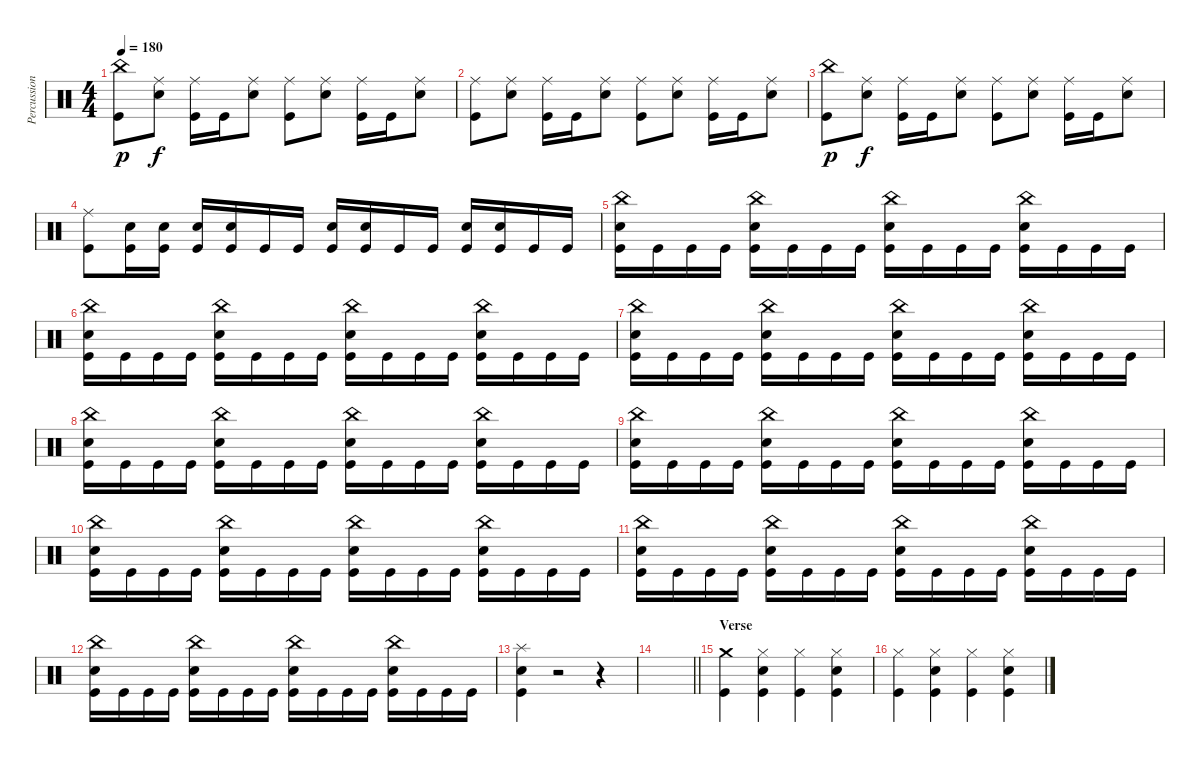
\track ("Percussion" "Percussion") {instrument percussion}
\staff {score}
\articulation defaults
\ts (4 4)
\tempo 180
\clef neutral
\ks c
("China (hit)" "Kick (hit)").8{dy p} ("Ride (middle)" "Snare (hit) 2").8{dy f} ("Ride (middle)" "Kick (hit)").16 "Kick (hit)".16 ("Ride (middle)" "Snare (hit) 2").8 ("Ride (middle)" "Kick (hit)").8 ("Ride (middle)" "Snare (hit) 2").8 ("Ride (middle)" "Kick (hit)").16 "Kick (hit)".16 ("Ride (middle)" "Snare (hit) 2").8 |
("Ride (middle)" "Kick (hit)").8 ("Ride (middle)" "Snare (hit) 2").8 ("Ride (middle)" "Kick (hit)").16 "Kick (hit)".16 ("Ride (middle)" "Snare (hit) 2").8 ("Ride (middle)" "Kick (hit)").8 ("Ride (middle)" "Snare (hit) 2").8 ("Ride (middle)" "Kick (hit)").16 "Kick (hit)".16 ("Ride (middle)" "Snare (hit) 2").8 |
("China (hit)" "Kick (hit)").8{dy p} ("Ride (middle)" "Snare (hit) 2").8{dy f} ("Ride (middle)" "Kick (hit)").16 "Kick (hit)".16 ("Ride (middle)" "Snare (hit) 2").8 ("Ride (middle)" "Kick (hit)").8 ("Ride (middle)" "Snare (hit) 2").8 ("Ride (middle)" "Kick (hit)").16 "Kick (hit)".16 ("Ride (middle)" "Snare (hit) 2").8 |
("Ride (middle)" "Kick (hit)").8 ("Snare (hit) 2" "Kick (hit)").16 ("Snare (hit) 2" "Kick (hit)").16 ("Snare (hit) 2" "Kick (hit)").16 ("Snare (hit) 2" "Kick (hit)").16 "Kick (hit)".16 "Kick (hit)".16 ("Snare (hit) 2" "Kick (hit)").16 ("Snare (hit) 2" "Kick (hit)").16 "Kick (hit)".16 "Kick (hit)".16 ("Snare (hit) 2" "Kick (hit)").16 ("Snare (hit) 2" "Kick (hit)").16 "Kick (hit)".16 "Kick (hit)".16 |
("China (hit)" "Snare (hit) 2" "Kick (hit)").16 "Kick (hit)".16 "Kick (hit)".16 "Kick (hit)".16 ("China (hit)" "Snare (hit) 2" "Kick (hit)").16 "Kick (hit)".16 "Kick (hit)".16 "Kick (hit)".16 ("China (hit)" "Snare (hit) 2" "Kick (hit)").16 "Kick (hit)".16 "Kick (hit)".16 "Kick (hit)".16 ("China (hit)" "Snare (hit) 2" "Kick (hit)").16 "Kick (hit)".16 "Kick (hit)".16 "Kick (hit)".16 |
("China (hit)" "Snare (hit) 2" "Kick (hit)").16 "Kick (hit)".16 "Kick (hit)".16 "Kick (hit)".16 ("China (hit)" "Snare (hit) 2" "Kick (hit)").16 "Kick (hit)".16 "Kick (hit)".16 "Kick (hit)".16 ("China (hit)" "Snare (hit) 2" "Kick (hit)").16 "Kick (hit)".16 "Kick (hit)".16 "Kick (hit)".16 ("China (hit)" "Snare (hit) 2" "Kick (hit)").16 "Kick (hit)".16 "Kick (hit)".16 "Kick (hit)".16 |
("China (hit)" "Snare (hit) 2" "Kick (hit)").16 "Kick (hit)".16 "Kick (hit)".16 "Kick (hit)".16 ("China (hit)" "Snare (hit) 2" "Kick (hit)").16 "Kick (hit)".16 "Kick (hit)".16 "Kick (hit)".16 ("China (hit)" "Snare (hit) 2" "Kick (hit)").16 "Kick (hit)".16 "Kick (hit)".16 "Kick (hit)".16 ("China (hit)" "Snare (hit) 2" "Kick (hit)").16 "Kick (hit)".16 "Kick (hit)".16 "Kick (hit)".16 |
("China (hit)" "Snare (hit) 2" "Kick (hit)").16 "Kick (hit)".16 "Kick (hit)".16 "Kick (hit)".16 ("China (hit)" "Snare (hit) 2" "Kick (hit)").16 "Kick (hit)".16 "Kick (hit)".16 "Kick (hit)".16 ("China (hit)" "Snare (hit) 2" "Kick (hit)").16 "Kick (hit)".16 "Kick (hit)".16 "Kick (hit)".16 ("China (hit)" "Snare (hit) 2" "Kick (hit)").16 "Kick (hit)".16 "Kick (hit)".16 "Kick (hit)".16 |
("China (hit)" "Snare (hit) 2" "Kick (hit)").16 "Kick (hit)".16 "Kick (hit)".16 "Kick (hit)".16 ("China (hit)" "Snare (hit) 2" "Kick (hit)").16 "Kick (hit)".16 "Kick (hit)".16 "Kick (hit)".16 ("China (hit)" "Snare (hit) 2" "Kick (hit)").16 "Kick (hit)".16 "Kick (hit)".16 "Kick (hit)".16 ("China (hit)" "Snare (hit) 2" "Kick (hit)").16 "Kick (hit)".16 "Kick (hit)".16 "Kick (hit)".16 |
("China (hit)" "Snare (hit) 2" "Kick (hit)").16 "Kick (hit)".16 "Kick (hit)".16 "Kick (hit)".16 ("China (hit)" "Snare (hit) 2" "Kick (hit)").16 "Kick (hit)".16 "Kick (hit)".16 "Kick (hit)".16 ("China (hit)" "Snare (hit) 2" "Kick (hit)").16 "Kick (hit)".16 "Kick (hit)".16 "Kick (hit)".16 ("China (hit)" "Snare (hit) 2" "Kick (hit)").16 "Kick (hit)".16 "Kick (hit)".16 "Kick (hit)".16 |
("China (hit)" "Snare (hit) 2" "Kick (hit)").16 "Kick (hit)".16 "Kick (hit)".16 "Kick (hit)".16 ("China (hit)" "Snare (hit) 2" "Kick (hit)").16 "Kick (hit)".16 "Kick (hit)".16 "Kick (hit)".16 ("China (hit)" "Snare (hit) 2" "Kick (hit)").16 "Kick (hit)".16 "Kick (hit)".16 "Kick (hit)".16 ("China (hit)" "Snare (hit) 2" "Kick (hit)").16 "Kick (hit)".16 "Kick (hit)".16 "Kick (hit)".16 |
("China (hit)" "Snare (hit) 2" "Kick (hit)").16 "Kick (hit)".16 "Kick (hit)".16 "Kick (hit)".16 ("China (hit)" "Snare (hit) 2" "Kick (hit)").16 "Kick (hit)".16 "Kick (hit)".16 "Kick (hit)".16 ("China (hit)" "Snare (hit) 2" "Kick (hit)").16 "Kick (hit)".16 "Kick (hit)".16 "Kick (hit)".16 ("China (hit)" "Snare (hit) 2" "Kick (hit)").16 "Kick (hit)".16 "Kick (hit)".16 "Kick (hit)".16 |
("Splash (hit)" "Snare (hit) 2" "Kick (hit)").4 r.2 r.4 |
\barLineRight lightlight
|
\section ("" "Verse")
("Crash medium (hit)" "Kick (hit)").4 ("Hi-Hat (closed)" "Snare (hit) 2" "Kick (hit)").4 ("Hi-Hat (closed)" "Kick (hit)").4 ("Hi-Hat (closed)" "Snare (hit) 2" "Kick (hit)").4 |
("Hi-Hat (closed)" "Kick (hit)").4 ("Hi-Hat (closed)" "Snare (hit) 2" "Kick (hit)").4 ("Hi-Hat (closed)" "Kick (hit)").4 ("Hi-Hat (closed)" "Snare (hit) 2" "Kick (hit)").4
